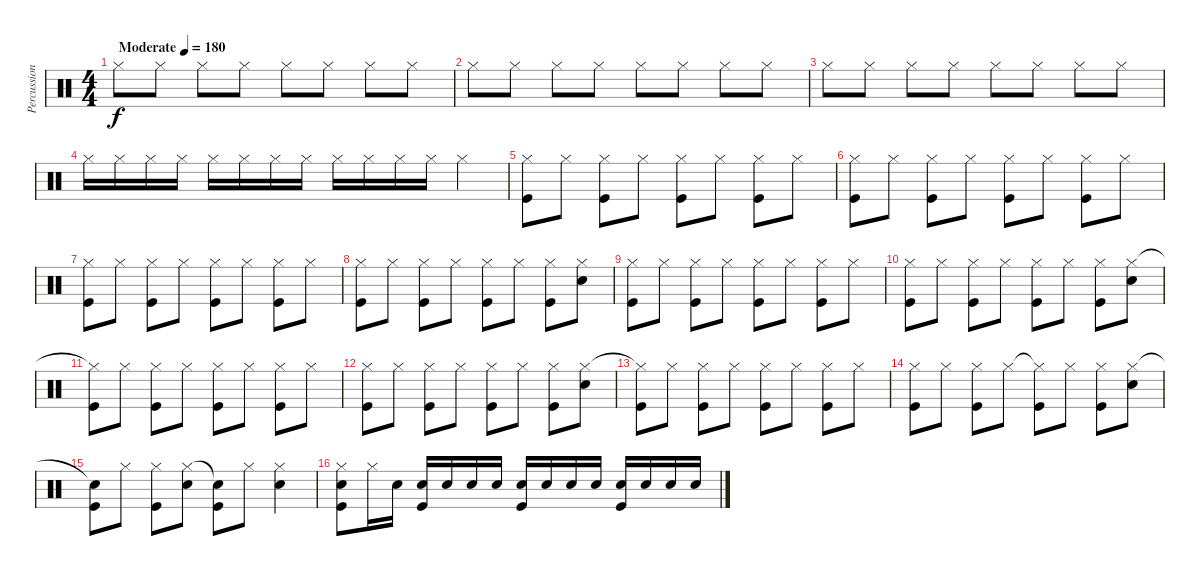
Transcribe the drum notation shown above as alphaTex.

\track ("Percussion" "Percussion") {instrument percussion}
\staff {score}
\articulation defaults
\ts (4 4)
\tempo (180 "Moderate")
\clef neutral
\ks c "Hi-Hat (closed)".8{dy f} "Hi-Hat (closed)".8 "Hi-Hat (closed)".8 "Hi-Hat (closed)".8 "Hi-Hat (closed)".8 "Hi-Hat (closed)".8 "Hi-Hat (closed)".8 "Hi-Hat (closed)".8
|
"Hi-Hat (closed)".8 "Hi-Hat (closed)".8 "Hi-Hat (closed)".8 "Hi-Hat (closed)".8 "Hi-Hat (closed)".8 "Hi-Hat (closed)".8 "Hi-Hat (closed)".8 "Hi-Hat (closed)".8 |
"Hi-Hat (closed)".8 "Hi-Hat (closed)".8 "Hi-Hat (closed)".8 "Hi-Hat (closed)".8 "Hi-Hat (closed)".8 "Hi-Hat (closed)".8 "Hi-Hat (closed)".8 "Hi-Hat (closed)".8 |
"Hi-Hat (closed)".16 "Hi-Hat (closed)".16 "Hi-Hat (closed)".16 "Hi-Hat (closed)".16 "Hi-Hat (closed)".16 "Hi-Hat (closed)".16 "Hi-Hat (closed)".16 "Hi-Hat (closed)".16 "Hi-Hat (closed)".16 "Hi-Hat (closed)".16 "Hi-Hat (closed)".16 "Hi-Hat (closed)".16 "Hi-Hat (closed)".4 |
("Hi-Hat (closed)" "Kick (hit)").8 "Hi-Hat (closed)".8 ("Hi-Hat (closed)" "Kick (hit)").8 "Hi-Hat (closed)".8 ("Hi-Hat (closed)" "Kick (hit)").8 "Hi-Hat (closed)".8 ("Hi-Hat (closed)" "Kick (hit)").8 "Hi-Hat (closed)".8 |
("Hi-Hat (closed)" "Kick (hit)").8 "Hi-Hat (closed)".8 ("Hi-Hat (closed)" "Kick (hit)").8 "Hi-Hat (closed)".8 ("Hi-Hat (closed)" "Kick (hit)").8 "Hi-Hat (closed)".8 ("Hi-Hat (closed)" "Kick (hit)").8 "Hi-Hat (closed)".8 |
("Hi-Hat (closed)" "Kick (hit)").8 "Hi-Hat (closed)".8 ("Hi-Hat (closed)" "Kick (hit)").8 "Hi-Hat (closed)".8 ("Hi-Hat (closed)" "Kick (hit)").8 "Hi-Hat (closed)".8 ("Hi-Hat (closed)" "Kick (hit)").8 "Hi-Hat (closed)".8 |
("Hi-Hat (closed)" "Kick (hit)").8 "Hi-Hat (closed)".8 ("Hi-Hat (closed)" "Kick (hit)").8 "Hi-Hat (closed)".8 ("Hi-Hat (closed)" "Kick (hit)").8 "Hi-Hat (closed)".8 ("Hi-Hat (closed)" "Kick (hit)").8 ("Hi-Hat (closed)" "Snare (hit) 2").8 |
("Hi-Hat (closed)" "Kick (hit)").8 "Hi-Hat (closed)".8 ("Hi-Hat (closed)" "Kick (hit)").8 "Hi-Hat (closed)".8 ("Hi-Hat (closed)" "Kick (hit)").8 "Hi-Hat (closed)".8 ("Hi-Hat (closed)" "Kick (hit)").8 "Hi-Hat (closed)".8 |
("Hi-Hat (closed)" "Kick (hit)").8 "Hi-Hat (closed)".8 ("Hi-Hat (closed)" "Kick (hit)").8 "Hi-Hat (closed)".8 ("Hi-Hat (closed)" "Kick (hit)").8 "Hi-Hat (closed)".8 ("Hi-Hat (closed)" "Kick (hit)").8 ("Hi-Hat (closed)" "Snare (hit) 2").8 |
("Hi-Hat (closed)"{t} "Kick (hit)").8 "Hi-Hat (closed)".8 ("Hi-Hat (closed)" "Kick (hit)").8 "Hi-Hat (closed)".8 ("Hi-Hat (closed)" "Kick (hit)").8 "Hi-Hat (closed)".8 ("Hi-Hat (closed)" "Kick (hit)").8 "Hi-Hat (closed)".8 |
("Hi-Hat (closed)" "Kick (hit)").8 "Hi-Hat (closed)".8 ("Hi-Hat (closed)" "Kick (hit)").8 "Hi-Hat (closed)".8 ("Hi-Hat (closed)" "Kick (hit)").8 "Hi-Hat (closed)".8 ("Hi-Hat (closed)" "Kick (hit)").8 ("Hi-Hat (closed)" "Snare (hit) 2").8 |
("Hi-Hat (closed)"{t} "Kick (hit)").8 "Hi-Hat (closed)".8 ("Hi-Hat (closed)" "Kick (hit)").8 "Hi-Hat (closed)".8 ("Hi-Hat (closed)" "Kick (hit)").8 "Hi-Hat (closed)".8 ("Hi-Hat (closed)" "Kick (hit)").8 "Hi-Hat (closed)".8 |
("Hi-Hat (closed)" "Kick (hit)").8 "Hi-Hat (closed)".8 ("Hi-Hat (closed)" "Kick (hit)").8 "Hi-Hat (closed)".8 ("Hi-Hat (closed)"{t} "Kick (hit)").8 "Hi-Hat (closed)".8 ("Hi-Hat (closed)" "Kick (hit)").8 ("Hi-Hat (closed)" "Snare (hit) 2").8 |
("Snare (hit)"{t} "Kick (hit)").8 "Hi-Hat (closed)".8 ("Hi-Hat (closed)" "Kick (hit)").8 ("Hi-Hat (closed)" "Snare (hit) 2").8 ("Snare (hit)"{t} "Kick (hit)").8 "Hi-Hat (closed)".8 ("Hi-Hat (closed)" "Snare (hit) 2").4 |
("Hi-Hat (closed)" "Snare (hit) 2" "Kick (hit)").8 "Hi-Hat (closed)".16 "Snare (hit) 2".16 ("Snare (hit) 2" "Kick (hit)").16 "Snare (hit) 2".16 "Snare (hit) 2".16 "Snare (hit) 2".16 ("Snare (hit) 2" "Kick (hit)").16 "Snare (hit) 2".16 "Snare (hit) 2".16 "Snare (hit) 2".16 ("Snare (hit) 2" "Kick (hit)").16 "Snare (hit) 2".16 "Snare (hit) 2".16 "Snare (hit) 2".16
